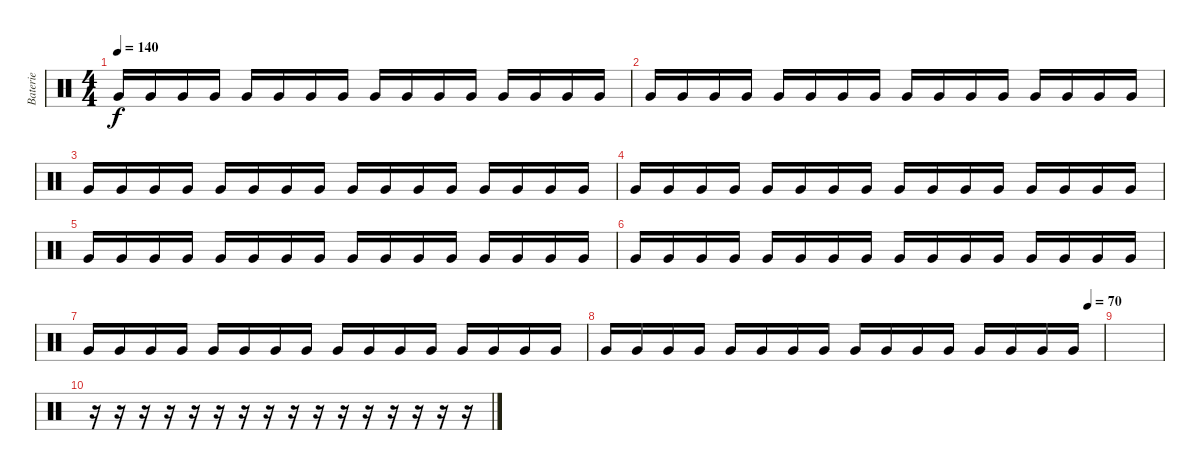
\track ("Baterie" "Baterie") {instrument percussion}
\staff {score}
\articulation defaults
\ts (4 4)
\tempo 140
\clef neutral
\ks c "Very Low Tom (hit)".16{dy f} "Very Low Tom (hit)".16 "Very Low Tom (hit)".16 "Very Low Tom (hit)".16 "Very Low Tom (hit)".16 "Very Low Tom (hit)".16 "Very Low Tom (hit)".16 "Very Low Tom (hit)".16 "Very Low Tom (hit)".16 "Very Low Tom (hit)".16 "Very Low Tom (hit)".16 "Very Low Tom (hit)".16 "Very Low Tom (hit)".16 "Very Low Tom (hit)".16 "Very Low Tom (hit)".16 "Very Low Tom (hit)".16
|
"Very Low Tom (hit)".16 "Very Low Tom (hit)".16 "Very Low Tom (hit)".16 "Very Low Tom (hit)".16 "Very Low Tom (hit)".16 "Very Low Tom (hit)".16 "Very Low Tom (hit)".16 "Very Low Tom (hit)".16 "Very Low Tom (hit)".16 "Very Low Tom (hit)".16 "Very Low Tom (hit)".16 "Very Low Tom (hit)".16 "Very Low Tom (hit)".16 "Very Low Tom (hit)".16 "Very Low Tom (hit)".16 "Very Low Tom (hit)".16 |
"Very Low Tom (hit)".16 "Very Low Tom (hit)".16 "Very Low Tom (hit)".16 "Very Low Tom (hit)".16 "Very Low Tom (hit)".16 "Very Low Tom (hit)".16 "Very Low Tom (hit)".16 "Very Low Tom (hit)".16 "Very Low Tom (hit)".16 "Very Low Tom (hit)".16 "Very Low Tom (hit)".16 "Very Low Tom (hit)".16 "Very Low Tom (hit)".16 "Very Low Tom (hit)".16 "Very Low Tom (hit)".16 "Very Low Tom (hit)".16 |
"Very Low Tom (hit)".16 "Very Low Tom (hit)".16 "Very Low Tom (hit)".16 "Very Low Tom (hit)".16 "Very Low Tom (hit)".16 "Very Low Tom (hit)".16 "Very Low Tom (hit)".16 "Very Low Tom (hit)".16 "Very Low Tom (hit)".16 "Very Low Tom (hit)".16 "Very Low Tom (hit)".16 "Very Low Tom (hit)".16 "Very Low Tom (hit)".16 "Very Low Tom (hit)".16 "Very Low Tom (hit)".16 "Very Low Tom (hit)".16 |
"Very Low Tom (hit)".16 "Very Low Tom (hit)".16 "Very Low Tom (hit)".16 "Very Low Tom (hit)".16 "Very Low Tom (hit)".16 "Very Low Tom (hit)".16 "Very Low Tom (hit)".16 "Very Low Tom (hit)".16 "Very Low Tom (hit)".16 "Very Low Tom (hit)".16 "Very Low Tom (hit)".16 "Very Low Tom (hit)".16 "Very Low Tom (hit)".16 "Very Low Tom (hit)".16 "Very Low Tom (hit)".16 "Very Low Tom (hit)".16 |
"Very Low Tom (hit)".16 "Very Low Tom (hit)".16 "Very Low Tom (hit)".16 "Very Low Tom (hit)".16 "Very Low Tom (hit)".16 "Very Low Tom (hit)".16 "Very Low Tom (hit)".16 "Very Low Tom (hit)".16 "Very Low Tom (hit)".16 "Very Low Tom (hit)".16 "Very Low Tom (hit)".16 "Very Low Tom (hit)".16 "Very Low Tom (hit)".16 "Very Low Tom (hit)".16 "Very Low Tom (hit)".16 "Very Low Tom (hit)".16 |
"Very Low Tom (hit)".16 "Very Low Tom (hit)".16 "Very Low Tom (hit)".16 "Very Low Tom (hit)".16 "Very Low Tom (hit)".16 "Very Low Tom (hit)".16 "Very Low Tom (hit)".16 "Very Low Tom (hit)".16 "Very Low Tom (hit)".16 "Very Low Tom (hit)".16 "Very Low Tom (hit)".16 "Very Low Tom (hit)".16 "Very Low Tom (hit)".16 "Very Low Tom (hit)".16 "Very Low Tom (hit)".16 "Very Low Tom (hit)".16 |
\tempo (70 0.96875)
"Very Low Tom (hit)".16 "Very Low Tom (hit)".16 "Very Low Tom (hit)".16 "Very Low Tom (hit)".16 "Very Low Tom (hit)".16 "Very Low Tom (hit)".16 "Very Low Tom (hit)".16 "Very Low Tom (hit)".16 "Very Low Tom (hit)".16 "Very Low Tom (hit)".16 "Very Low Tom (hit)".16 "Very Low Tom (hit)".16 "Very Low Tom (hit)".16 "Very Low Tom (hit)".16 "Very Low Tom (hit)".16 "Very Low Tom (hit)".16 |
|
r.16 r.16 r.16 r.16 r.16 r.16 r.16 r.16 r.16 r.16 r.16 r.16 r.16 r.16 r.16 r.16
